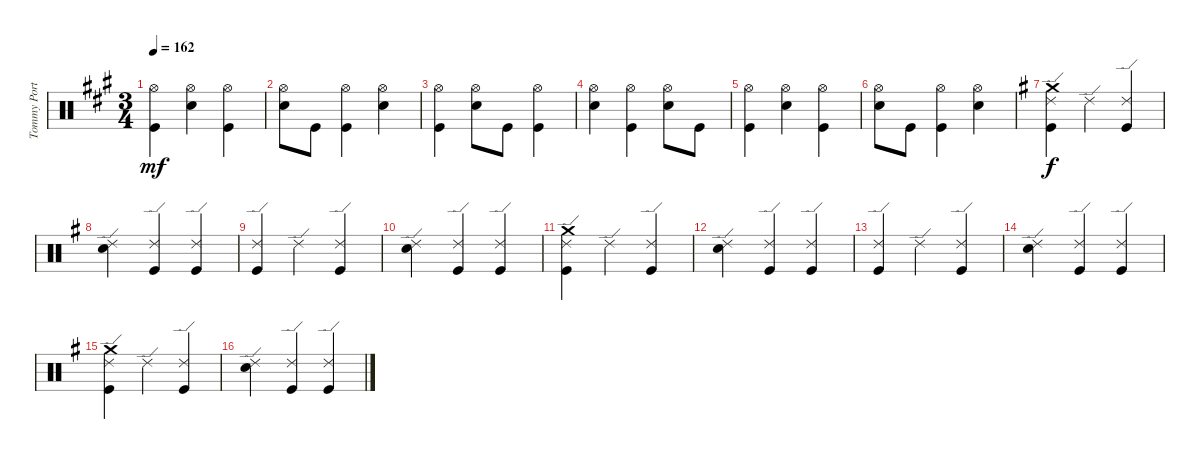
\track ("Tommy Portimo (Drums)" "Tommy Port") {instrument percussion}
\staff {score}
\articulation defaults
\ts (3 4)
\tempo 162
\clef neutral
\ks a
("Kick (hit)" "Hi-Hat (open)").4{dy mf} ("Electric Snare (hit)" "Hi-Hat (open)").4 ("Kick (hit)" "Hi-Hat (open)").4 |
("Electric Snare (hit)" "Hi-Hat (open)").8 "Kick (hit)".8 ("Kick (hit)" "Hi-Hat (open)").4 ("Electric Snare (hit)" "Hi-Hat (open)").4 |
("Kick (hit)" "Hi-Hat (open)").4 ("Electric Snare (hit)" "Hi-Hat (open)").8 "Kick (hit)".8 ("Kick (hit)" "Hi-Hat (open)").4 |
("Electric Snare (hit)" "Hi-Hat (open)").4 ("Kick (hit)" "Hi-Hat (open)").4 ("Electric Snare (hit)" "Hi-Hat (open)").8 "Kick (hit)".8 |
("Kick (hit)" "Hi-Hat (open)").4 ("Electric Snare (hit)" "Hi-Hat (open)").4 ("Kick (hit)" "Hi-Hat (open)").4 |
("Electric Snare (hit)" "Hi-Hat (open)").8 "Kick (hit)".8 ("Kick (hit)" "Hi-Hat (open)").4 ("Electric Snare (hit)" "Hi-Hat (open)").4 |
\ks g
("Kick (hit)" "Ride (edge) 2" "Crash medium (hit)").4{dy f} "Ride (edge) 2".4 ("Kick (hit)" "Ride (edge) 2").4 |
("Electric Snare (hit)" "Ride (edge) 2").4 ("Kick (hit)" "Ride (edge) 2").4 ("Kick (hit)" "Ride (edge) 2").4 |
("Kick (hit)" "Ride (edge) 2").4 "Ride (edge) 2".4 ("Kick (hit)" "Ride (edge) 2").4 |
("Electric Snare (hit)" "Ride (edge) 2").4 ("Kick (hit)" "Ride (edge) 2").4 ("Kick (hit)" "Ride (edge) 2").4 |
("Kick (hit)" "Ride (edge) 2" "Crash medium (hit)").4 "Ride (edge) 2".4 ("Kick (hit)" "Ride (edge) 2").4 |
("Electric Snare (hit)" "Ride (edge) 2").4 ("Kick (hit)" "Ride (edge) 2").4 ("Kick (hit)" "Ride (edge) 2").4 |
("Kick (hit)" "Ride (edge) 2").4 "Ride (edge) 2".4 ("Kick (hit)" "Ride (edge) 2").4 |
("Electric Snare (hit)" "Ride (edge) 2").4 ("Kick (hit)" "Ride (edge) 2").4 ("Kick (hit)" "Ride (edge) 2").4 |
("Kick (hit)" "Ride (edge) 2" "Crash medium (hit)").4 "Ride (edge) 2".4 ("Kick (hit)" "Ride (edge) 2").4 |
("Electric Snare (hit)" "Ride (edge) 2").4 ("Kick (hit)" "Ride (edge) 2").4 ("Kick (hit)" "Ride (edge) 2").4
